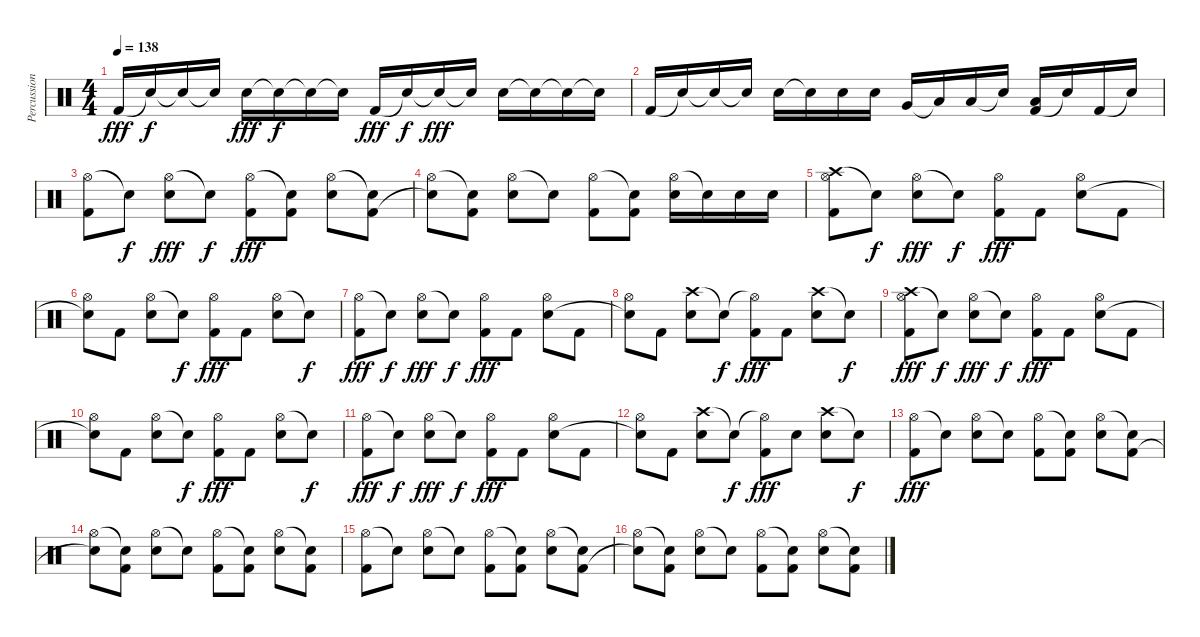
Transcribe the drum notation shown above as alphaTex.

\track ("Percussion" "Percussion") {instrument percussion}
\staff {score}
\articulation defaults
\ts (4 4)
\tempo 138
\clef neutral
\ks c "Kick (hit) 2".16{dy fff} "Snare (hit)"{t}.16{dy f} "Snare (hit)"{t}.16 "Snare (hit)"{t}.16 "Electric Snare (hit)".16{dy fff} "Snare (hit)"{t}.16{dy f} "Snare (hit)"{t}.16 "Snare (hit)"{t}.16 "Kick (hit) 2".16{dy fff} "Snare (hit)"{t}.16{dy f} "Snare (hit)"{t}.16{dy fff} "Snare (hit)"{t}.16 "Electric Snare (hit)".16 "Snare (hit)"{t}.16 "Snare (hit)"{t}.16 "Snare (hit)"{t}.16
|
"Kick (hit) 2".16 "Snare (hit)"{t}.16 "Snare (hit)"{t}.16 "Snare (hit)"{t}.16 "Electric Snare (hit)".16 "Snare (hit)"{t}.16 "Electric Snare (hit)".16 "Electric Snare (hit)".16 "Very Low Tom (hit)".16 "Low Floor Tom (hit)"{t}.16 "Low Floor Tom (hit)".16 "Snare (hit)"{t}.16 ("Kick (hit) 2" "Low Floor Tom (hit)").16 "Snare (hit)"{t}.16 "Kick (hit) 2".16 "Snare (hit)"{t}.16 |
("Hi-Hat (open)" "Kick (hit) 2").8 "Snare (hit)"{t}.8{dy f} ("Hi-Hat (open)" "Electric Snare (hit)").8{dy fff} "Snare (hit)"{t}.8{dy f} ("Hi-Hat (open)" "Kick (hit) 2").8{dy fff} ("Snare (hit)"{t} "Kick (hit) 2").8 ("Hi-Hat (open)" "Electric Snare (hit)").8 ("Snare (hit)"{t} "Kick (hit) 2").8 |
("Hi-Hat (open)" "Snare (hit)"{t}).8 ("Snare (hit)"{t} "Kick (hit) 2").8 ("Hi-Hat (open)" "Electric Snare (hit)").8 "Snare (hit)"{t}.8 ("Hi-Hat (open)" "Kick (hit) 2").8 ("Snare (hit)"{t} "Kick (hit) 2").8 ("Hi-Hat (open)" "Electric Snare (hit)").16 "Snare (hit)"{t}.16 "Electric Snare (hit)".16 "Electric Snare (hit)".16 |
("Crash high (hit)" "Hi-Hat (open)" "Kick (hit) 2").8 "Snare (hit)"{t}.8{dy f} ("Hi-Hat (open)" "Electric Snare (hit)").8{dy fff} "Snare (hit)"{t}.8{dy f} ("Hi-Hat (open)" "Kick (hit) 2").8{dy fff} "Kick (hit) 2".8 ("Hi-Hat (open)" "Electric Snare (hit)").8 "Kick (hit) 2".8 |
("Hi-Hat (open)" "Snare (hit)"{t}).8 "Kick (hit) 2".8 ("Hi-Hat (open)" "Electric Snare (hit)").8 "Snare (hit)"{t}.8{dy f} ("Hi-Hat (open)" "Kick (hit) 2").8{dy fff} "Kick (hit) 2".8 ("Hi-Hat (open)" "Electric Snare (hit)").8 "Snare (hit)"{t}.8{dy f} |
("Hi-Hat (open)" "Kick (hit) 2").8{dy fff} "Snare (hit)"{t}.8{dy f} ("Hi-Hat (open)" "Electric Snare (hit)").8{dy fff} "Snare (hit)"{t}.8{dy f} ("Hi-Hat (open)" "Kick (hit) 2").8{dy fff} "Kick (hit) 2".8 ("Hi-Hat (open)" "Electric Snare (hit)").8 "Kick (hit) 2".8 |
("Hi-Hat (open)" "Snare (hit)"{t}).8 "Kick (hit) 2".8 ("Crash high (hit)" "Electric Snare (hit)").8 "Snare (hit)"{t}.8{dy f} ("Hi-Hat (open)"{t} "Kick (hit) 2").8{dy fff} "Kick (hit) 2".8 ("Crash high (hit)" "Electric Snare (hit)").8 "Snare (hit)"{t}.8{dy f} |
("Crash high (hit)" "Hi-Hat (open)" "Kick (hit) 2").8{dy fff} "Snare (hit)"{t}.8{dy f} ("Hi-Hat (open)" "Electric Snare (hit)").8{dy fff} "Snare (hit)"{t}.8{dy f} ("Hi-Hat (open)" "Kick (hit) 2").8{dy fff} "Kick (hit) 2".8 ("Hi-Hat (open)" "Electric Snare (hit)").8 "Kick (hit) 2".8 |
("Hi-Hat (open)" "Snare (hit)"{t}).8 "Kick (hit) 2".8 ("Hi-Hat (open)" "Electric Snare (hit)").8 "Snare (hit)"{t}.8{dy f} ("Hi-Hat (open)" "Kick (hit) 2").8{dy fff} "Kick (hit) 2".8 ("Hi-Hat (open)" "Electric Snare (hit)").8 "Snare (hit)"{t}.8{dy f} |
("Hi-Hat (open)" "Kick (hit) 2").8{dy fff} "Snare (hit)"{t}.8{dy f} ("Hi-Hat (open)" "Electric Snare (hit)").8{dy fff} "Snare (hit)"{t}.8{dy f} ("Hi-Hat (open)" "Kick (hit) 2").8{dy fff} "Kick (hit) 2".8 ("Hi-Hat (open)" "Electric Snare (hit)").8 "Kick (hit) 2".8 |
("Hi-Hat (open)" "Snare (hit)"{t}).8 "Kick (hit) 2".8 ("Crash high (hit)" "Electric Snare (hit)").8 "Snare (hit)"{t}.8{dy f} ("Hi-Hat (open)"{t} "Kick (hit) 2").8{dy fff} "Electric Snare (hit)".8 ("Crash high (hit)" "Electric Snare (hit)").8 "Snare (hit)"{t}.8{dy f} |
("Hi-Hat (open)" "Kick (hit) 2").8{dy fff} "Snare (hit)"{t}.8 ("Hi-Hat (open)" "Electric Snare (hit)").8 "Snare (hit)"{t}.8 ("Hi-Hat (open)" "Kick (hit) 2").8 ("Snare (hit)"{t} "Kick (hit) 2").8 ("Hi-Hat (open)" "Electric Snare (hit)").8 ("Snare (hit)"{t} "Kick (hit) 2").8 |
("Hi-Hat (open)" "Snare (hit)"{t}).8 ("Snare (hit)"{t} "Kick (hit) 2").8 ("Hi-Hat (open)" "Electric Snare (hit)").8 "Snare (hit)"{t}.8 ("Hi-Hat (open)" "Kick (hit) 2").8 ("Snare (hit)"{t} "Kick (hit) 2").8 ("Hi-Hat (open)" "Electric Snare (hit)").8 ("Snare (hit)"{t} "Kick (hit) 2").8 |
("Hi-Hat (open)" "Kick (hit) 2").8 "Snare (hit)"{t}.8 ("Hi-Hat (open)" "Electric Snare (hit)").8 "Snare (hit)"{t}.8 ("Hi-Hat (open)" "Kick (hit) 2").8 ("Snare (hit)"{t} "Kick (hit) 2").8 ("Hi-Hat (open)" "Electric Snare (hit)").8 ("Snare (hit)"{t} "Kick (hit) 2").8 |
("Hi-Hat (open)" "Snare (hit)"{t}).8 ("Snare (hit)"{t} "Kick (hit) 2").8 ("Hi-Hat (open)" "Electric Snare (hit)").8 "Snare (hit)"{t}.8 ("Hi-Hat (open)" "Kick (hit) 2").8 ("Snare (hit)"{t} "Kick (hit) 2").8 ("Hi-Hat (open)" "Electric Snare (hit)").8 ("Snare (hit)"{t} "Kick (hit) 2").8
